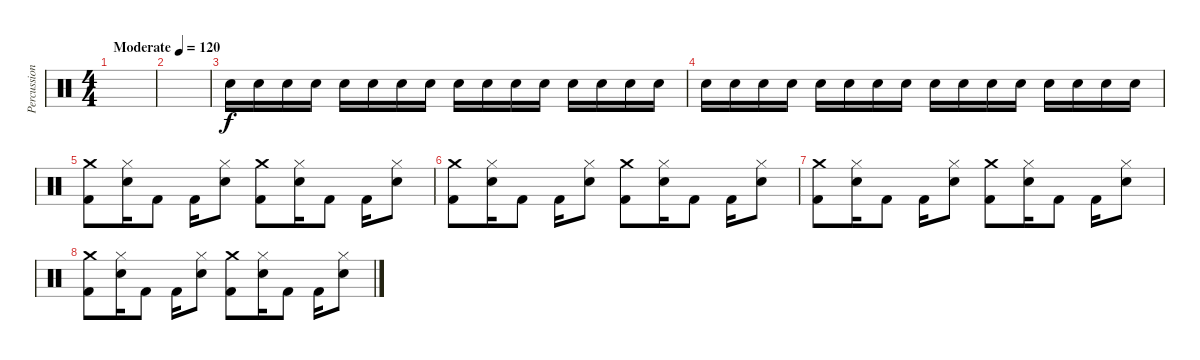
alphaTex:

\track ("Percussion" "Percussion") {instrument percussion}
\staff {score}
\articulation defaults
\ts (4 4)
\tempo (120 "Moderate")
\clef neutral
\ks c
|
|
"Electric Snare (hit)".16{volume 16} "Electric Snare (hit)".16 "Electric Snare (hit)".16 "Electric Snare (hit)".16 "Electric Snare (hit)".16 "Electric Snare (hit)".16 "Electric Snare (hit)".16 "Electric Snare (hit)".16 "Electric Snare (hit)".16 "Electric Snare (hit)".16 "Electric Snare (hit)".16 "Electric Snare (hit)".16 "Electric Snare (hit)".16 "Electric Snare (hit)".16 "Electric Snare (hit)".16 "Electric Snare (hit)".16 |
"Electric Snare (hit)".16 "Electric Snare (hit)".16 "Electric Snare (hit)".16 "Electric Snare (hit)".16 "Electric Snare (hit)".16 "Electric Snare (hit)".16 "Electric Snare (hit)".16 "Electric Snare (hit)".16 "Electric Snare (hit)".16 "Electric Snare (hit)".16 "Electric Snare (hit)".16 "Electric Snare (hit)".16 "Electric Snare (hit)".16 "Electric Snare (hit)".16 "Electric Snare (hit)".16 "Electric Snare (hit)".16 |
("Crash medium (hit)" "Kick (hit) 2").8 ("Electric Snare (hit)" "Hi-Hat (closed)").16 "Kick (hit) 2".8 "Kick (hit) 2".16 ("Hi-Hat (closed)" "Electric Snare (hit)").8 ("Crash medium (hit)" "Kick (hit) 2").8 ("Electric Snare (hit)" "Hi-Hat (closed)").16 "Kick (hit) 2".8 "Kick (hit) 2".16 ("Hi-Hat (closed)" "Electric Snare (hit)").8 |
("Crash medium (hit)" "Kick (hit) 2").8 ("Electric Snare (hit)" "Hi-Hat (closed)").16 "Kick (hit) 2".8 "Kick (hit) 2".16 ("Hi-Hat (closed)" "Electric Snare (hit)").8 ("Crash medium (hit)" "Kick (hit) 2").8 ("Electric Snare (hit)" "Hi-Hat (closed)").16 "Kick (hit) 2".8 "Kick (hit) 2".16 ("Hi-Hat (closed)" "Electric Snare (hit)").8 |
("Crash medium (hit)" "Kick (hit) 2").8 ("Electric Snare (hit)" "Hi-Hat (closed)").16 "Kick (hit) 2".8 "Kick (hit) 2".16 ("Hi-Hat (closed)" "Electric Snare (hit)").8 ("Crash medium (hit)" "Kick (hit) 2").8 ("Electric Snare (hit)" "Hi-Hat (closed)").16 "Kick (hit) 2".8 "Kick (hit) 2".16 ("Hi-Hat (closed)" "Electric Snare (hit)").8 |
("Crash medium (hit)" "Kick (hit) 2").8 ("Electric Snare (hit)" "Hi-Hat (closed)").16 "Kick (hit) 2".8 "Kick (hit) 2".16 ("Hi-Hat (closed)" "Electric Snare (hit)").8 ("Crash medium (hit)" "Kick (hit) 2").8 ("Electric Snare (hit)" "Hi-Hat (closed)").16 "Kick (hit) 2".8 "Kick (hit) 2".16 ("Hi-Hat (closed)" "Electric Snare (hit)").8
